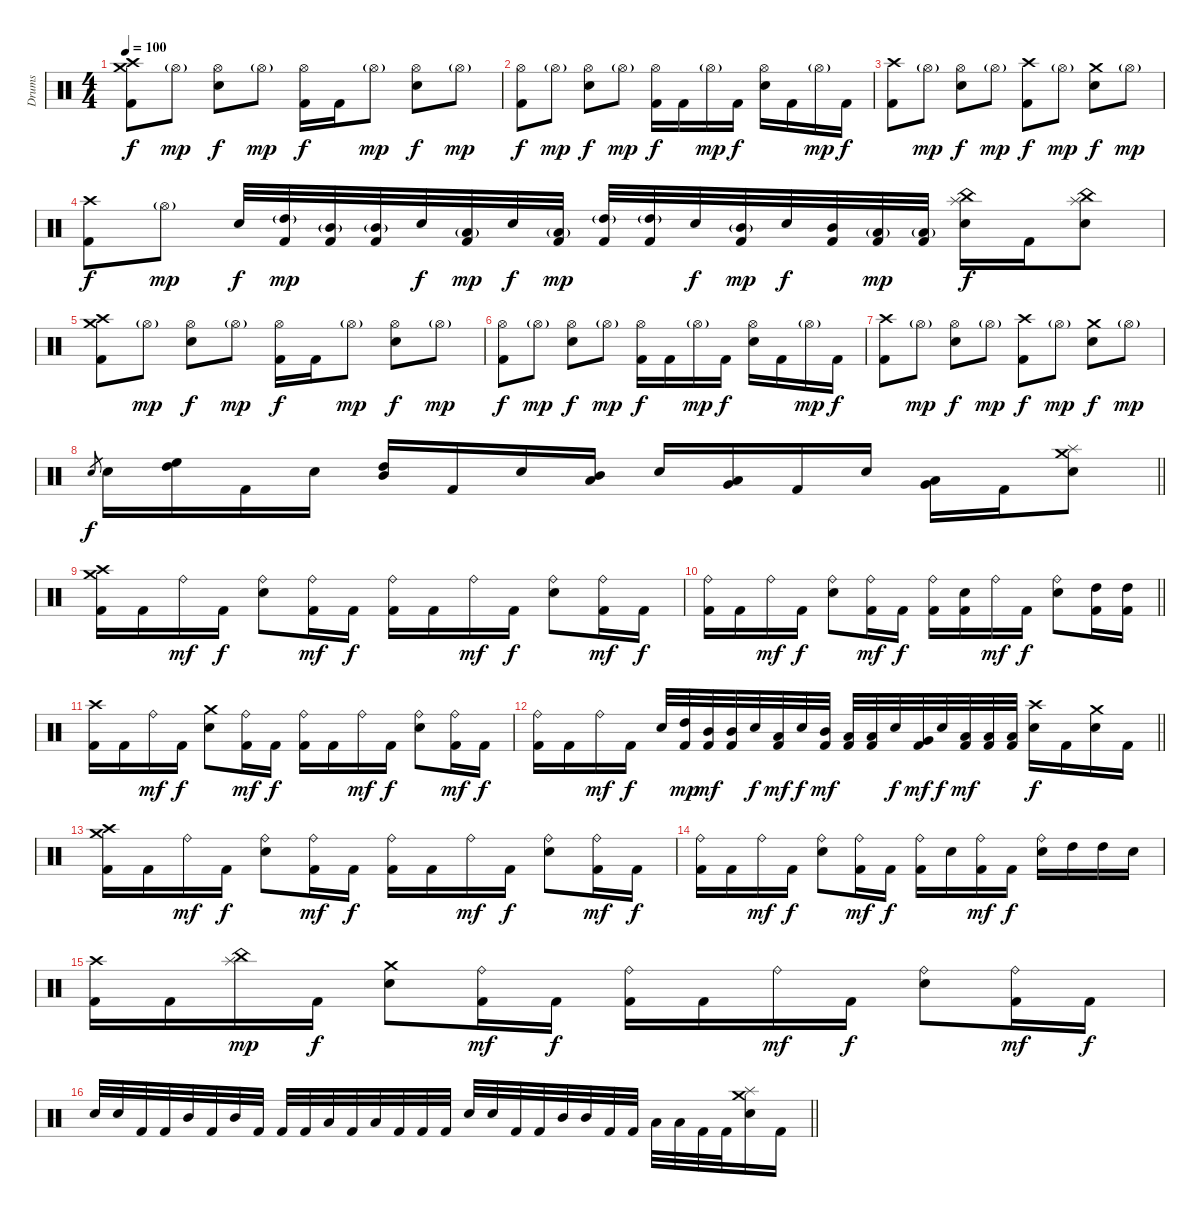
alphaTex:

\track ("Drums" "Drums") {instrument percussion}
\staff {score}
\articulation defaults
\ts (4 4)
\tempo 100
\clef neutral
\ks c
("Crash high (hit)" "Crash medium (hit)" "Kick (hit) 2").8{dy f} "Hi-Hat (open)"{g}.8{dy mp} ("Hi-Hat (open)" "Electric Snare (hit)").8{dy f} "Hi-Hat (open)"{g}.8{dy mp} ("Hi-Hat (open)" "Kick (hit) 2").16{dy f} "Kick (hit) 2".16 "Hi-Hat (open)"{g}.8{dy mp} ("Hi-Hat (open)" "Electric Snare (hit)").8{dy f} "Hi-Hat (open)"{g}.8{dy mp} |
("Hi-Hat (open)" "Kick (hit) 2").8{dy f} "Hi-Hat (open)"{g}.8{dy mp} ("Hi-Hat (open)" "Electric Snare (hit)").8{dy f} "Hi-Hat (open)"{g}.8{dy mp} ("Hi-Hat (open)" "Kick (hit) 2").16{dy f} "Kick (hit) 2".16 "Hi-Hat (open)"{g}.16{dy mp} "Kick (hit) 2".16{dy f} ("Hi-Hat (open)" "Electric Snare (hit)").16 "Kick (hit) 2".16 "Hi-Hat (open)"{g}.16{dy mp} "Kick (hit) 2".16{dy f} |
("Crash high (hit)" "Kick (hit) 2").8 "Hi-Hat (open)"{g}.8{dy mp} ("Hi-Hat (open)" "Electric Snare (hit)").8{dy f} "Hi-Hat (open)"{g}.8{dy mp} ("Crash high (hit)" "Kick (hit) 2").8{dy f} "Hi-Hat (open)"{g}.8{dy mp} ("Crash medium (hit)" "Electric Snare (hit)").8{dy f} "Hi-Hat (open)"{g}.8{dy mp} |
("Crash high (hit)" "Kick (hit) 2").8{dy f} "Hi-Hat (open)"{g}.8{dy mp} "Electric Snare (hit)".32{dy f} ("High Tom (hit)"{g} "Kick (hit) 2").32{dy mp} ("Mid Tom (hit)"{g} "Kick (hit) 2").32 ("Mid Tom (hit)"{g} "Kick (hit) 2").32 "Electric Snare (hit)".32{dy f} ("Low Tom (hit)"{g} "Kick (hit) 2").32{dy mp} "Electric Snare (hit)".32{dy f} ("Low Tom (hit)"{g} "Kick (hit) 2").32{dy mp} ("High Tom (hit)"{g} "Kick (hit) 2").32 ("High Tom (hit)"{g} "Kick (hit) 2").32 "Electric Snare (hit)".32{dy f} ("Mid Tom (hit)"{g} "Kick (hit) 2").32{dy mp} "Electric Snare (hit)".32{dy f} ("Mid Tom (hit)" "Kick (hit) 2").32 ("Low Tom (hit)"{g} "Kick (hit) 2").32{dy mp} ("Low Tom (hit)"{g} "Kick (hit) 2").32 ("China (hit)" "Splash (hit)" "Electric Snare (hit)").16{dy f} "Kick (hit) 2".16 ("China (hit)" "Splash (hit)" "Electric Snare (hit)").8 |
("Crash high (hit)" "Crash medium (hit)" "Kick (hit) 2").8 "Hi-Hat (open)"{g}.8{dy mp} ("Hi-Hat (open)" "Electric Snare (hit)").8{dy f} "Hi-Hat (open)"{g}.8{dy mp} ("Hi-Hat (open)" "Kick (hit) 2").16{dy f} "Kick (hit) 2".16 "Hi-Hat (open)"{g}.8{dy mp} ("Hi-Hat (open)" "Electric Snare (hit)").8{dy f} "Hi-Hat (open)"{g}.8{dy mp} |
("Hi-Hat (open)" "Kick (hit) 2").8{dy f} "Hi-Hat (open)"{g}.8{dy mp} ("Hi-Hat (open)" "Electric Snare (hit)").8{dy f} "Hi-Hat (open)"{g}.8{dy mp} ("Hi-Hat (open)" "Kick (hit) 2").16{dy f} "Kick (hit) 2".16 "Hi-Hat (open)"{g}.16{dy mp} "Kick (hit) 2".16{dy f} ("Hi-Hat (open)" "Electric Snare (hit)").16 "Kick (hit) 2".16 "Hi-Hat (open)"{g}.16{dy mp} "Kick (hit) 2".16{dy f} |
("Crash high (hit)" "Kick (hit) 2").8 "Hi-Hat (open)"{g}.8{dy mp} ("Hi-Hat (open)" "Electric Snare (hit)").8{dy f} "Hi-Hat (open)"{g}.8{dy mp} ("Crash high (hit)" "Kick (hit) 2").8{dy f} "Hi-Hat (open)"{g}.8{dy mp} ("Crash medium (hit)" "Electric Snare (hit)").8{dy f} "Hi-Hat (open)"{g}.8{dy mp} |
\barLineRight lightlight "Electric Snare (hit)".8{gr dy f} "Electric Snare (hit)".16
("High Floor Tom (hit)" "High Tom (hit)").16 "Kick (hit) 2".16 "Electric Snare (hit)".16 ("High Tom (hit)" "Mid Tom (hit)").16 "Kick (hit) 2".16 "Electric Snare (hit)".16 ("Mid Tom (hit)" "Low Tom (hit)").16 "Electric Snare (hit)".16 ("Low Tom (hit)" "Very Low Tom (hit)").16 "Kick (hit) 2".16 "Electric Snare (hit)".16 ("Very Low Tom (hit)" "Low Floor Tom (hit)").16 "Kick (hit) 2".16 ("Crash medium (hit)" "Splash (hit)" "Electric Snare (hit)").8 |
("Crash high (hit)" "Crash medium (hit)" "Kick (hit) 2").16 "Kick (hit) 2".16 "Ride (bell)".16{dy mf} "Kick (hit) 2".16{dy f} ("Ride (bell)" "Electric Snare (hit)").8 ("Ride (bell)" "Kick (hit) 2").16{dy mf} "Kick (hit) 2".16{dy f} ("Ride (bell)" "Kick (hit) 2").16 "Kick (hit) 2".16 "Ride (bell)".16{dy mf} "Kick (hit) 2".16{dy f} ("Ride (bell)" "Electric Snare (hit)").8 ("Ride (bell)" "Kick (hit) 2").16{dy mf} "Kick (hit) 2".16{dy f} |
\barLineRight lightlight
("Ride (bell)" "Kick (hit) 2").16 "Kick (hit) 2".16 "Ride (bell)".16{dy mf} "Kick (hit) 2".16{dy f} ("Ride (bell)" "Electric Snare (hit)").8 ("Ride (bell)" "Kick (hit) 2").16{dy mf} "Kick (hit) 2".16{dy f} ("Ride (bell)" "Kick (hit) 2").16 ("Electric Snare (hit)" "Kick (hit) 2").16 "Ride (bell)".16{dy mf} "Kick (hit) 2".16{dy f} ("Ride (bell)" "Electric Snare (hit)").8 ("High Tom (hit)" "Kick (hit) 2").16 ("High Tom (hit)" "Kick (hit) 2").16 |
("Crash high (hit)" "Kick (hit) 2").16 "Kick (hit) 2".16 "Ride (bell)".16{dy mf} "Kick (hit) 2".16{dy f} ("Crash medium (hit)" "Electric Snare (hit)").8 ("Ride (bell)" "Kick (hit) 2").16{dy mf} "Kick (hit) 2".16{dy f} ("Ride (bell)" "Kick (hit) 2").16 "Kick (hit) 2".16 "Ride (bell)".16{dy mf} "Kick (hit) 2".16{dy f} ("Ride (bell)" "Electric Snare (hit)").8 ("Ride (bell)" "Kick (hit) 2").16{dy mf} "Kick (hit) 2".16{dy f} |
\barLineRight lightlight
("Ride (bell)" "Kick (hit) 2").16 "Kick (hit) 2".16 "Ride (bell)".16{dy mf} "Kick (hit) 2".16{dy f} "Electric Snare (hit)".32 ("High Tom (hit)" "Kick (hit) 2").32{dy mp} ("Mid Tom (hit)" "Kick (hit) 2").32{dy mf} ("Mid Tom (hit)" "Kick (hit) 2").32 "Electric Snare (hit)".32{dy f} ("Low Tom (hit)" "Kick (hit) 2").32{dy mf} "Electric Snare (hit)".32{dy f} ("Mid Tom (hit)" "Kick (hit) 2").32{dy mf} ("Low Tom (hit)" "Kick (hit) 2").32 ("Low Tom (hit)" "Kick (hit) 2").32 "Electric Snare (hit)".32{dy f} ("Very Low Tom (hit)" "Kick (hit) 2").32{dy mf} "Electric Snare (hit)".32{dy f} ("Low Tom (hit)" "Kick (hit) 2").32{dy mf} ("Low Tom (hit)" "Kick (hit) 2").32 ("Low Tom (hit)" "Kick (hit) 2").32 ("Crash high (hit)" "Electric Snare (hit)").16{dy f} "Kick (hit) 2".16 ("Crash medium (hit)" "Electric Snare (hit)").16 "Kick (hit) 2".16 |
("Crash high (hit)" "Crash medium (hit)" "Kick (hit) 2").16 "Kick (hit) 2".16 "Ride (bell)".16{dy mf} "Kick (hit) 2".16{dy f} ("Ride (bell)" "Electric Snare (hit)").8 ("Ride (bell)" "Kick (hit) 2").16{dy mf} "Kick (hit) 2".16{dy f} ("Ride (bell)" "Kick (hit) 2").16 "Kick (hit) 2".16 "Ride (bell)".16{dy mf} "Kick (hit) 2".16{dy f} ("Ride (bell)" "Electric Snare (hit)").8 ("Ride (bell)" "Kick (hit) 2").16{dy mf} "Kick (hit) 2".16{dy f} |
("Ride (bell)" "Kick (hit) 2").16 "Kick (hit) 2".16 "Ride (bell)".16{dy mf} "Kick (hit) 2".16{dy f} ("Ride (bell)" "Electric Snare (hit)").8 ("Ride (bell)" "Kick (hit) 2").16{dy mf} "Kick (hit) 2".16{dy f} ("Ride (bell)" "Kick (hit) 2").16 "Electric Snare (hit)".16 ("Ride (bell)" "Kick (hit) 2").16{dy mf} "Kick (hit) 2".16{dy f} ("Ride (bell)" "Electric Snare (hit)").16 "High Tom (hit)".16 "High Tom (hit)".16 "Electric Snare (hit)".16 |
("Crash high (hit)" "Kick (hit) 2").16 "Kick (hit) 2".16 ("China (hit)" "Splash (hit)").16{dy mp} "Kick (hit) 2".16{dy f} ("Crash medium (hit)" "Electric Snare (hit)").8 ("Ride (bell)" "Kick (hit) 2").16{dy mf} "Kick (hit) 2".16{dy f} ("Ride (bell)" "Kick (hit) 2").16 "Kick (hit) 2".16 "Ride (bell)".16{dy mf} "Kick (hit) 2".16{dy f} ("Ride (bell)" "Electric Snare (hit)").8 ("Ride (bell)" "Kick (hit) 2").16{dy mf} "Kick (hit) 2".16{dy f} |
\barLineRight lightlight "Electric Snare (hit)".32 "Electric Snare (hit)".32 "Kick (hit) 2".32 "Kick (hit) 2".32 "Mid Tom (hit)".32 "Kick (hit) 2".32 "Mid Tom (hit)".32 "Kick (hit) 2".32 "Kick (hit) 2".32 "Kick (hit) 2".32 "Low Tom (hit)".32 "Kick (hit) 2".32 "Low Tom (hit)".32 "Kick (hit) 2".32 "Kick (hit) 2".32 "Kick (hit) 2".32 "Electric Snare (hit)".32 "Electric Snare (hit)".32 "Kick (hit) 2".32 "Kick (hit) 2".32 "Mid Tom (hit)".32 "Mid Tom (hit)".32 "Kick (hit) 2".32 "Kick (hit) 2".32 "Low Tom (hit)".32 "Low Tom (hit)".32 "Kick (hit) 2".32 "Kick (hit) 2".32
("Crash medium (hit)" "Splash (hit)" "Electric Snare (hit)").16 "Kick (hit) 2".16
